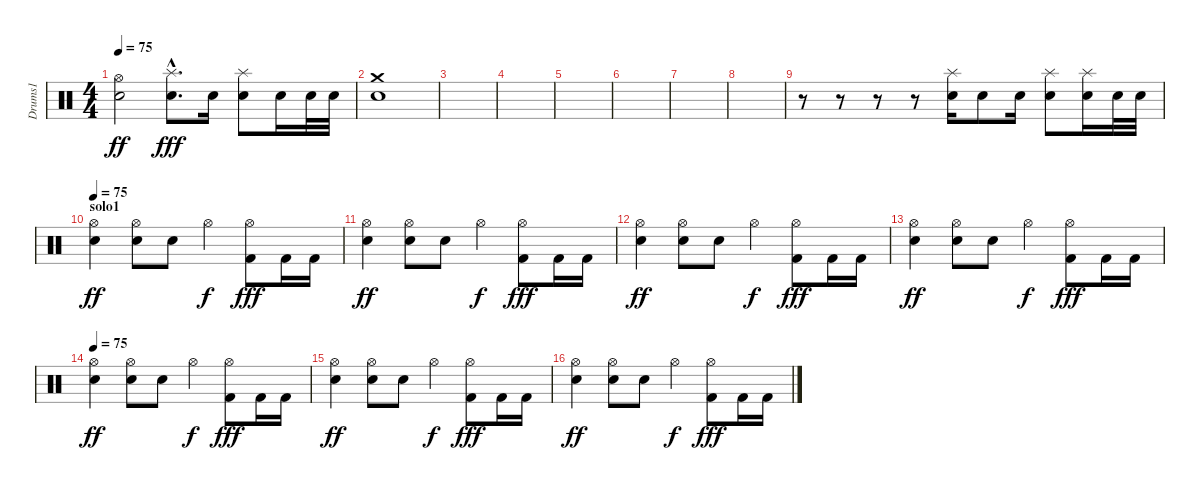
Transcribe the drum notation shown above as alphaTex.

\track ("Drums1" "Drums1") {instrument percussion}
\staff {score}
\articulation defaults
\ts (4 4)
\tempo 75
\clef neutral
\ks c
("Hi-Hat (open)" "Snare (hit) 2").2{dy ff} ("Splash (hit)"{hac} "Electric Snare (hit)"{hac}).8{d dy fff} "Electric Snare (hit)".16 ("Splash (hit)" "Electric Snare (hit)").8 "Electric Snare (hit)".16 "Electric Snare (hit)".32 "Electric Snare (hit)".32 |
("Crash medium (hit)" "Electric Snare (hit)").1 |
|
|
|
|
|
|
r.8 r.8 r.8 r.8 ("Splash (hit)" "Electric Snare (hit)").16 "Electric Snare (hit)".8 "Electric Snare (hit)".16 ("Electric Snare (hit)" "Splash (hit)").8 ("Electric Snare (hit)" "Splash (hit)").16 "Electric Snare (hit)".32 "Electric Snare (hit)".32 |
\section ("" "solo1")
\tempo 75
("Hi-Hat (open)" "Snare (hit) 2").4{dy ff} ("Hi-Hat (open)" "Snare (hit) 2").8 "Snare (hit) 2".8 "Hi-Hat (open)".4{dy f} ("Hi-Hat (open)" "Kick (hit) 2").8{dy fff} "Kick (hit) 2".16 "Kick (hit) 2".16 |
("Hi-Hat (open)" "Snare (hit) 2").4{dy ff} ("Hi-Hat (open)" "Snare (hit) 2").8 "Snare (hit) 2".8 "Hi-Hat (open)".4{dy f} ("Hi-Hat (open)" "Kick (hit) 2").8{dy fff} "Kick (hit) 2".16 "Kick (hit) 2".16 |
("Hi-Hat (open)" "Snare (hit) 2").4{dy ff} ("Hi-Hat (open)" "Snare (hit) 2").8 "Snare (hit) 2".8 "Hi-Hat (open)".4{dy f} ("Hi-Hat (open)" "Kick (hit) 2").8{dy fff} "Kick (hit) 2".16 "Kick (hit) 2".16 |
("Hi-Hat (open)" "Snare (hit) 2").4{dy ff} ("Hi-Hat (open)" "Snare (hit) 2").8 "Snare (hit) 2".8 "Hi-Hat (open)".4{dy f} ("Hi-Hat (open)" "Kick (hit) 2").8{dy fff} "Kick (hit) 2".16 "Kick (hit) 2".16 |
\tempo 75
("Hi-Hat (open)" "Snare (hit) 2").4{dy ff} ("Hi-Hat (open)" "Snare (hit) 2").8 "Snare (hit) 2".8 "Hi-Hat (open)".4{dy f} ("Hi-Hat (open)" "Kick (hit) 2").8{dy fff} "Kick (hit) 2".16 "Kick (hit) 2".16 |
("Hi-Hat (open)" "Snare (hit) 2").4{dy ff} ("Hi-Hat (open)" "Snare (hit) 2").8 "Snare (hit) 2".8 "Hi-Hat (open)".4{dy f} ("Hi-Hat (open)" "Kick (hit) 2").8{dy fff} "Kick (hit) 2".16 "Kick (hit) 2".16 |
("Hi-Hat (open)" "Snare (hit) 2").4{dy ff} ("Hi-Hat (open)" "Snare (hit) 2").8 "Snare (hit) 2".8 "Hi-Hat (open)".4{dy f} ("Hi-Hat (open)" "Kick (hit) 2").8{dy fff} "Kick (hit) 2".16 "Kick (hit) 2".16
